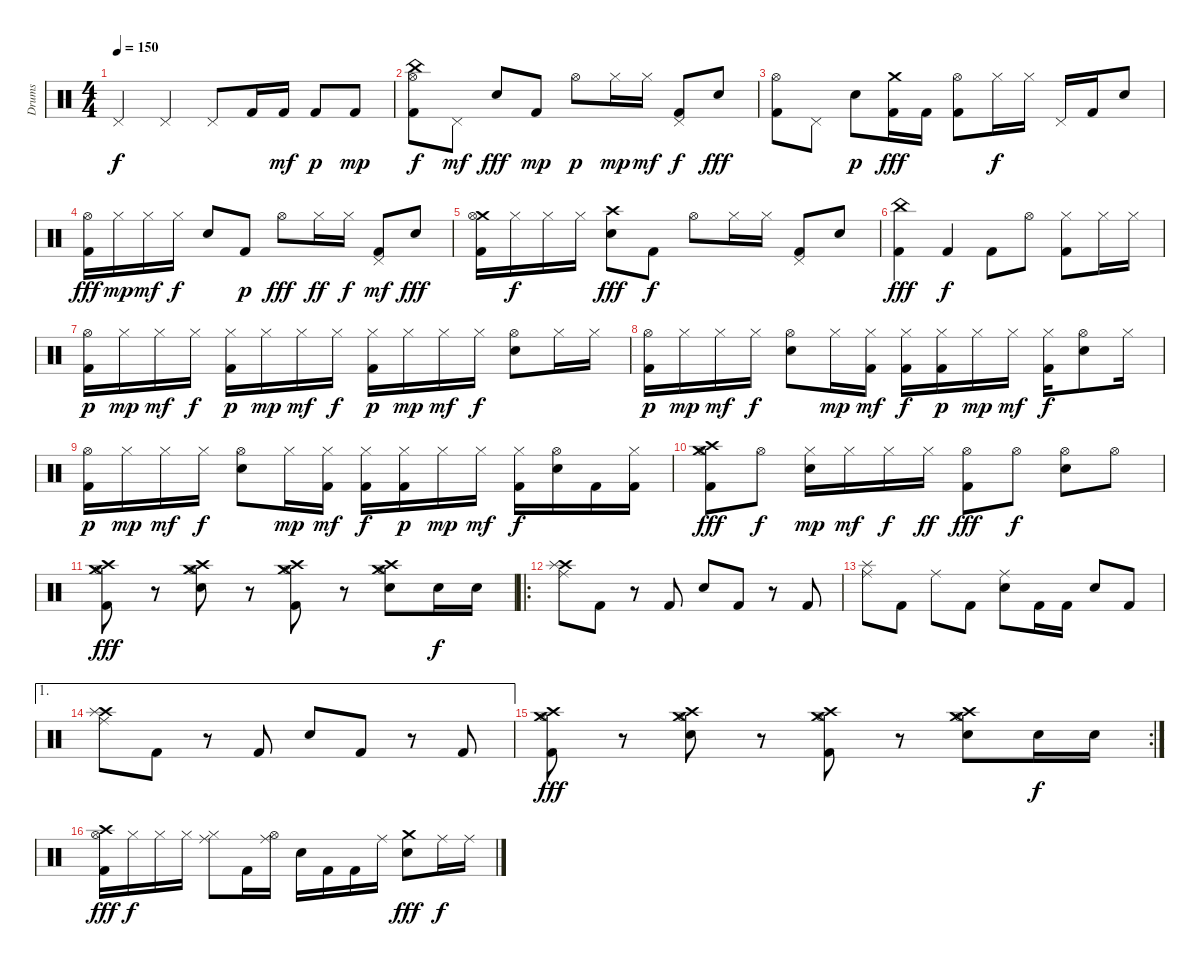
\track ("Drums" "Drums") {instrument percussion}
\staff {score}
\articulation defaults
\ts (4 4)
\tempo 150
\clef neutral
\ks c "Pedal Hi-Hat (hit)".4{dy f} "Pedal Hi-Hat (hit)".4 "Pedal Hi-Hat (hit)".8 "Kick (hit) 2".16 "Kick (hit) 2".16{dy mf} "Kick (hit) 2".8{dy p} "Kick (hit) 2".8{dy mp}
|
("China (hit)" "Hi-Hat (open)" "Kick (hit) 2").8{dy f} "Pedal Hi-Hat (hit)".8{dy mf} "Electric Snare (hit)".8{dy fff} "Kick (hit) 2".8{dy mp} "Hi-Hat (open)".8{dy p} "Hi-Hat (closed)".16{dy mp} "Hi-Hat (closed)".16{dy mf} ("Pedal Hi-Hat (hit)" "Kick (hit) 2").8{dy f} "Electric Snare (hit)".8{dy fff} |
("Hi-Hat (open)" "Kick (hit) 2").8 "Pedal Hi-Hat (hit)".8 "Electric Snare (hit)".8{dy p} ("Crash medium (hit)" "Kick (hit) 2").16{dy fff} "Kick (hit) 2".16 ("Hi-Hat (open)" "Kick (hit) 2").8 "Hi-Hat (closed)".16{dy f} "Hi-Hat (closed)".16 "Pedal Hi-Hat (hit)".16 "Kick (hit) 2".16 "Electric Snare (hit)".8 |
("Hi-Hat (open)" "Kick (hit) 2").16{dy fff} "Hi-Hat (closed)".16{dy mp} "Hi-Hat (closed)".16{dy mf} "Hi-Hat (closed)".16{dy f} "Electric Snare (hit)".8 "Kick (hit) 2".8{dy p} "Hi-Hat (open)".8{dy fff} "Hi-Hat (closed)".16{dy ff} "Hi-Hat (closed)".16{dy f} ("Pedal Hi-Hat (hit)" "Kick (hit) 2").8{dy mf} "Electric Snare (hit)".8{dy fff} |
("Crash medium (hit)" "Hi-Hat (open)" "Kick (hit) 2").16 "Hi-Hat (closed)".16{dy f} "Hi-Hat (closed)".16 "Hi-Hat (closed)".16 ("Crash high (hit)" "Electric Snare (hit)").8{dy fff} "Kick (hit) 2".8{dy f} "Hi-Hat (open)".8 "Hi-Hat (closed)".16 "Hi-Hat (closed)".16 ("Pedal Hi-Hat (hit)" "Kick (hit) 2").8 "Electric Snare (hit)".8 |
("China (hit)" "Kick (hit) 2").4{dy fff} "Kick (hit) 2".4{dy f} "Kick (hit) 2".8 "Hi-Hat (open)".8 ("Hi-Hat (closed)" "Kick (hit) 2").8 "Hi-Hat (closed)".16 "Hi-Hat (closed)".16 |
("Hi-Hat (open)" "Kick (hit) 2").16{dy p} "Hi-Hat (closed)".16{dy mp} "Hi-Hat (closed)".16{dy mf} "Hi-Hat (closed)".16{dy f} ("Hi-Hat (closed)" "Kick (hit) 2").16{dy p} "Hi-Hat (closed)".16{dy mp} "Hi-Hat (closed)".16{dy mf} "Hi-Hat (closed)".16{dy f} ("Hi-Hat (closed)" "Kick (hit) 2").16{dy p} "Hi-Hat (closed)".16{dy mp} "Hi-Hat (closed)".16{dy mf} "Hi-Hat (closed)".16{dy f} ("Hi-Hat (open)" "Electric Snare (hit)").8 "Hi-Hat (closed)".16 "Hi-Hat (closed)".16 |
("Hi-Hat (open)" "Kick (hit) 2").16{dy p} "Hi-Hat (closed)".16{dy mp} "Hi-Hat (closed)".16{dy mf} "Hi-Hat (closed)".16{dy f} ("Hi-Hat (open)" "Electric Snare (hit)").8 "Hi-Hat (closed)".16{dy mp} ("Hi-Hat (closed)" "Kick (hit) 2").16{dy mf} ("Hi-Hat (closed)" "Kick (hit) 2").16{dy f} ("Hi-Hat (closed)" "Kick (hit) 2").16{dy p} "Hi-Hat (closed)".16{dy mp} "Hi-Hat (closed)".16{dy mf} ("Hi-Hat (closed)" "Kick (hit) 2").16{dy f} ("Hi-Hat (open)" "Electric Snare (hit)").8 "Hi-Hat (closed)".16 |
("Hi-Hat (open)" "Kick (hit) 2").16{dy p} "Hi-Hat (closed)".16{dy mp} "Hi-Hat (closed)".16{dy mf} "Hi-Hat (closed)".16{dy f} ("Hi-Hat (open)" "Electric Snare (hit)").8 "Hi-Hat (closed)".16{dy mp} ("Hi-Hat (closed)" "Kick (hit) 2").16{dy mf} ("Hi-Hat (closed)" "Kick (hit) 2").16{dy f} ("Hi-Hat (closed)" "Kick (hit) 2").16{dy p} "Hi-Hat (closed)".16{dy mp} "Hi-Hat (closed)".16{dy mf} ("Hi-Hat (closed)" "Kick (hit) 2").16{dy f} ("Hi-Hat (open)" "Electric Snare (hit)").16 "Kick (hit) 2".16 ("Hi-Hat (closed)" "Kick (hit) 2").16 |
("Crash medium (hit)" "Crash high (hit)" "Hi-Hat (open)" "Kick (hit) 2").8{dy fff} "Hi-Hat (open)".8{dy f} ("Hi-Hat (closed)" "Electric Snare (hit)").16{dy mp} "Hi-Hat (closed)".16{dy mf} "Hi-Hat (closed)".16{dy f} "Hi-Hat (closed)".16{dy ff} ("Hi-Hat (open)" "Kick (hit) 2").8{dy fff} "Hi-Hat (open)".8{dy f} ("Hi-Hat (open)" "Electric Snare (hit)").8 "Hi-Hat (open)".8 |
("Crash medium (hit)" "Crash high (hit)" "Hi-Hat (open)" "Kick (hit) 2").8{dy fff} r.8 ("Crash medium (hit)" "Crash high (hit)" "Hi-Hat (open)" "Electric Snare (hit)").8 r.8 ("Crash medium (hit)" "Crash high (hit)" "Hi-Hat (open)" "Kick (hit) 2").8 r.8 ("Crash medium (hit)" "Crash high (hit)" "Hi-Hat (open)" "Electric Snare (hit)").8 "Electric Snare (hit)".16{dy f} "Electric Snare (hit)".16 |
\ro
("Crash high (hit)" "Ride (middle)" "Splash (hit)").8 "Kick (hit) 2".8 r.8 "Kick (hit) 2".8 "Electric Snare (hit)".8 "Kick (hit) 2".8 r.8 "Kick (hit) 2".8 |
("Ride (middle)" "Splash (hit)").8 "Kick (hit) 2".8 "Ride (middle)".8 "Kick (hit) 2".8 ("Ride (middle)" "Electric Snare (hit)").8 "Kick (hit) 2".16 "Kick (hit) 2".16 "Electric Snare (hit)".8 "Kick (hit) 2".8 |
\ae 1
("Crash high (hit)" "Ride (middle)" "Splash (hit)").8 "Kick (hit) 2".8 r.8 "Kick (hit) 2".8 "Electric Snare (hit)".8 "Kick (hit) 2".8 r.8 "Kick (hit) 2".8 |
\rc 2
("Crash medium (hit)" "Crash high (hit)" "Hi-Hat (open)" "Kick (hit) 2").8{dy fff} r.8 ("Crash medium (hit)" "Crash high (hit)" "Hi-Hat (open)" "Electric Snare (hit)").8 r.8 ("Crash medium (hit)" "Crash high (hit)" "Hi-Hat (open)" "Kick (hit) 2").8 r.8 ("Crash medium (hit)" "Crash high (hit)" "Hi-Hat (open)" "Electric Snare (hit)").8 "Electric Snare (hit)".16{dy f} "Electric Snare (hit)".16 |
("Crash high (hit)" "Hi-Hat (open)" "Kick (hit) 2").16{dy fff} "Hi-Hat (closed)".16{dy f} "Hi-Hat (closed)".16 "Hi-Hat (closed)".16 ("Ride (middle)" "Hi-Hat (closed)").8 "Kick (hit) 2".16 ("Ride (middle)" "Hi-Hat (open)").16 "Electric Snare (hit)".16 "Kick (hit) 2".16 "Kick (hit) 2".16 "Ride (middle)".16 ("Crash medium (hit)" "Electric Snare (hit)").8{dy fff} "Ride (middle)".16{dy f} "Ride (middle)".16
